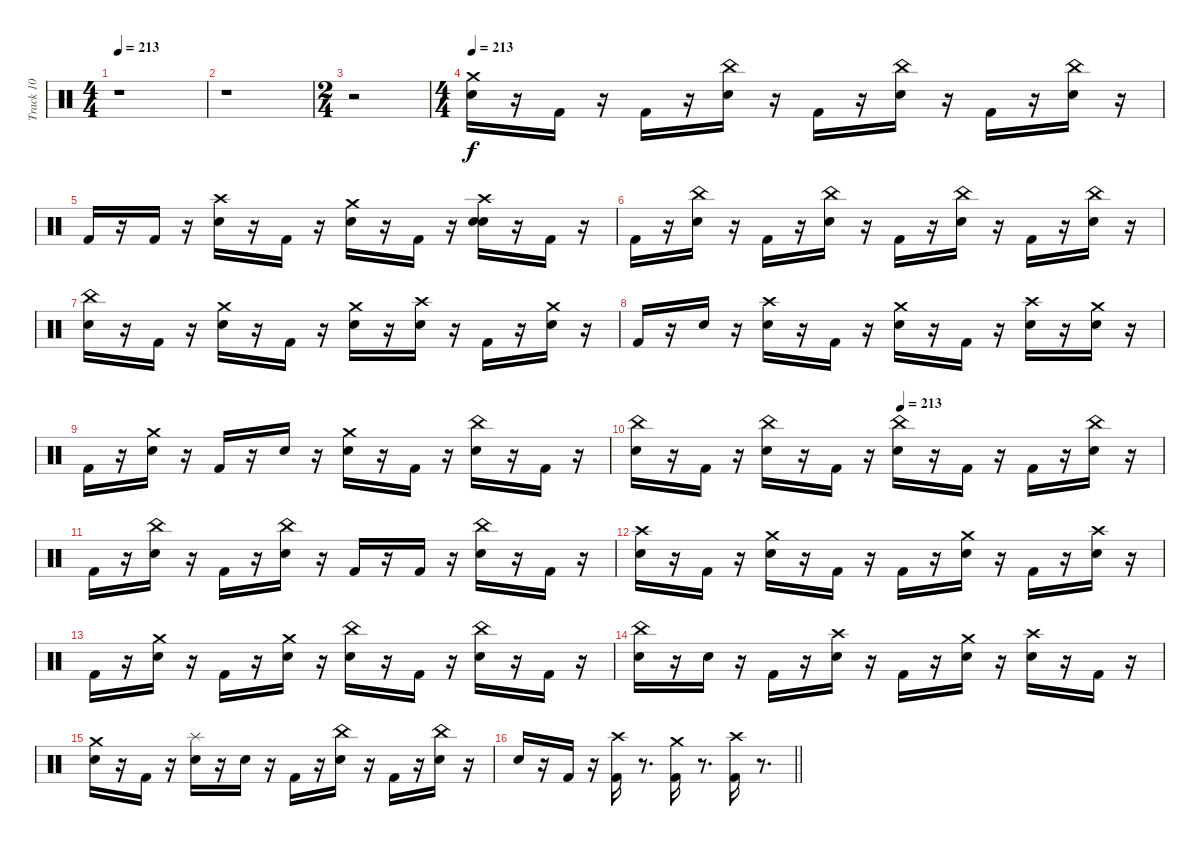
\track ("Track 10" "Track 10") {instrument percussion}
\staff {score}
\articulation defaults
\ts (4 4)
\tempo 213
\clef neutral
\ks c
r.1{dy f} |
r.1 |
\ts (2 4)
r.2 |
\ts (4 4)
\tempo 213
("Snare (hit) 2" "Crash medium (hit)").16 r.16 "Kick (hit) 2".16 r.16 "Kick (hit) 2".16 r.16 ("Snare (hit) 2" "China (hit)").16 r.16 "Kick (hit) 2".16 r.16 ("Snare (hit) 2" "China (hit)").16 r.16 "Kick (hit) 2".16 r.16 ("Snare (hit) 2" "China (hit)").16 r.16 |
"Kick (hit) 2".16 r.16 "Kick (hit) 2".16 r.16 ("Snare (hit) 2" "Crash high (hit)").16 r.16 "Kick (hit) 2".16 r.16 ("Snare (hit) 2" "Crash medium (hit)").16 r.16 "Kick (hit) 2".16 r.16 ("Snare (hit) 2" "Snare (hit) 2" "Crash high (hit)").16 r.16 "Kick (hit) 2".16 r.16 |
"Kick (hit) 2".16 r.16 ("Snare (hit) 2" "China (hit)").16 r.16 "Kick (hit) 2".16 r.16 ("Snare (hit) 2" "China (hit)").16 r.16 "Kick (hit) 2".16 r.16 ("Snare (hit) 2" "China (hit)").16 r.16 "Kick (hit) 2".16 r.16 ("Snare (hit) 2" "China (hit)").16 r.16 |
("Snare (hit) 2" "China (hit)").16 r.16 "Kick (hit) 2".16 r.16 ("Snare (hit) 2" "Crash medium (hit)").16 r.16 "Kick (hit) 2".16 r.16 ("Snare (hit) 2" "Crash medium (hit)").16 r.16 ("Snare (hit) 2" "Crash high (hit)").16 r.16 "Kick (hit) 2".16 r.16 ("Snare (hit) 2" "Crash medium (hit)").16 r.16 |
"Kick (hit) 2".16 r.16 "Snare (hit) 2".16 r.16 ("Snare (hit) 2" "Crash high (hit)").16 r.16 "Kick (hit) 2".16 r.16 ("Snare (hit) 2" "Crash medium (hit)").16 r.16 "Kick (hit) 2".16 r.16 ("Snare (hit) 2" "Crash high (hit)").16 r.16 ("Snare (hit) 2" "Crash medium (hit)").16 r.16 |
"Kick (hit) 2".16 r.16 ("Snare (hit) 2" "Crash medium (hit)").16 r.16 "Kick (hit) 2".16 r.16 "Snare (hit) 2".16 r.16 ("Snare (hit) 2" "Crash medium (hit)").16 r.16 "Kick (hit) 2".16 r.16 ("Snare (hit) 2" "China (hit)").16 r.16 "Kick (hit) 2".16 r.16 |
\tempo (213 0.5)
("Snare (hit) 2" "China (hit)").16 r.16 "Kick (hit) 2".16 r.16 ("Snare (hit) 2" "China (hit)").16 r.16 "Kick (hit) 2".16 r.16 ("Snare (hit) 2" "China (hit)").16 r.16 "Kick (hit) 2".16 r.16 "Kick (hit) 2".16 r.16 ("Snare (hit) 2" "China (hit)").16 r.16 |
"Kick (hit) 2".16 r.16 ("Snare (hit) 2" "China (hit)").16 r.16 "Kick (hit) 2".16 r.16 ("Snare (hit) 2" "China (hit)").16 r.16 "Kick (hit) 2".16 r.16 "Kick (hit) 2".16 r.16 ("Snare (hit) 2" "China (hit)").16 r.16 "Kick (hit) 2".16 r.16 |
("Snare (hit) 2" "Crash high (hit)").16 r.16 "Kick (hit) 2".16 r.16 ("Snare (hit) 2" "Crash medium (hit)").16 r.16 "Kick (hit) 2".16 r.16 "Kick (hit) 2".16 r.16 ("Snare (hit) 2" "Crash medium (hit)").16 r.16 "Kick (hit) 2".16 r.16 ("Snare (hit) 2" "Crash high (hit)").16 r.16 |
"Kick (hit) 2".16 r.16 ("Snare (hit) 2" "Crash medium (hit)").16 r.16 "Kick (hit) 2".16 r.16 ("Snare (hit) 2" "Crash medium (hit)").16 r.16 ("Snare (hit) 2" "China (hit)").16 r.16 "Kick (hit) 2".16 r.16 ("Snare (hit) 2" "China (hit)").16 r.16 "Kick (hit) 2".16 r.16 |
("Snare (hit) 2" "China (hit)").16 r.16 "Snare (hit) 2".16 r.16 "Kick (hit) 2".16 r.16 ("Snare (hit) 2" "Crash high (hit)").16 r.16 "Kick (hit) 2".16 r.16 ("Snare (hit) 2" "Crash medium (hit)").16 r.16 ("Snare (hit) 2" "Crash high (hit)").16 r.16 "Kick (hit) 2".16 r.16 |
("Snare (hit) 2" "Crash medium (hit)").16 r.16 "Kick (hit) 2".16 r.16 ("Snare (hit) 2" "Splash (hit)").16 r.16 "Snare (hit) 2".16 r.16 "Kick (hit) 2".16 r.16 ("Snare (hit) 2" "China (hit)").16 r.16 "Kick (hit) 2".16 r.16 ("Snare (hit) 2" "China (hit)").16 r.16 |
\barLineRight lightlight "Snare (hit) 2".16
r.16 "Kick (hit) 2".16 r.16 ("Kick (hit) 2" "Crash high (hit)").16 r.8{d} ("Kick (hit) 2" "Crash medium (hit)").16 r.8{d} ("Kick (hit) 2" "Crash high (hit)").16 r.8{d}
